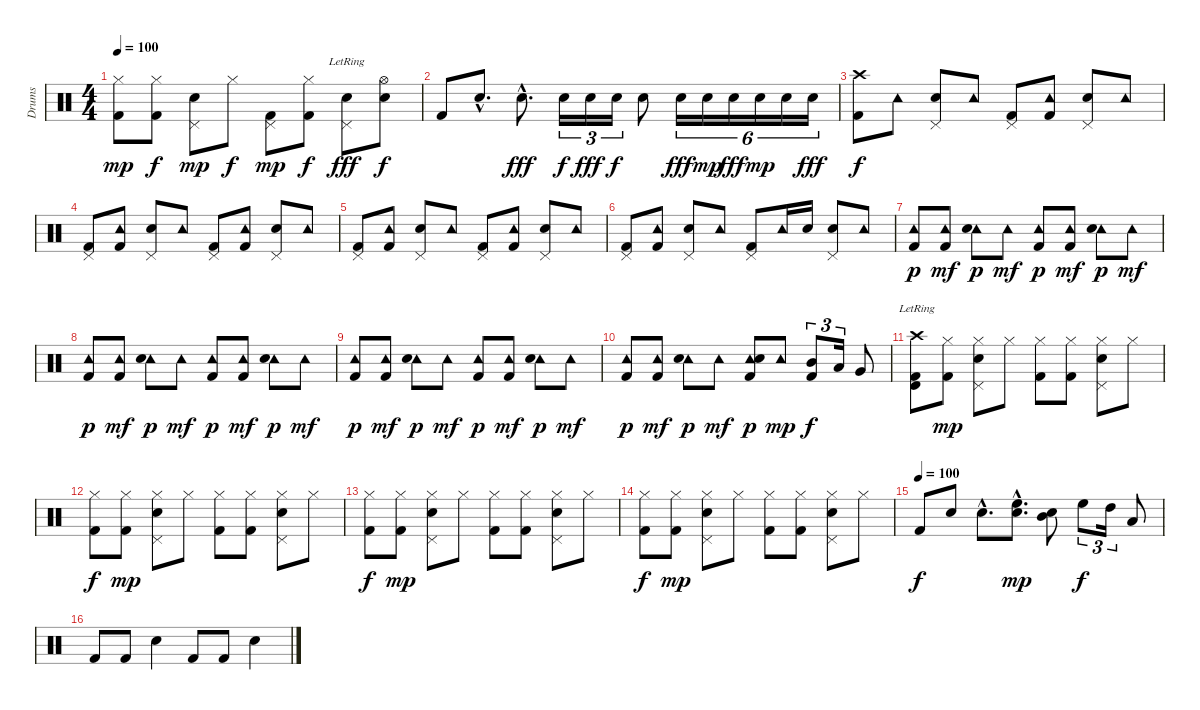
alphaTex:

\track ("Drums" "Drums") {instrument percussion}
\staff {score}
\articulation defaults
\ts (4 4)
\tempo 100
\clef neutral
\ks c
("Hi-Hat (closed)" "Kick (hit) 2").8{dy mp volume 10} ("Hi-Hat (closed)" "Kick (hit) 2").8{dy f} ("Pedal Hi-Hat (hit)" "Snare (hit) 2").8{dy mp} "Hi-Hat (closed)".8{dy f} ("Pedal Hi-Hat (hit)" "Kick (hit) 2").8{dy mp} ("Hi-Hat (closed)" "Kick (hit) 2").8{dy f} ("Pedal Hi-Hat (hit)" "Snare (hit) 2"{lr}).8{dy fff} ("Hi-Hat (open)" "Snare (hit) 2").8{dy f} |
"Kick (hit) 2".8 "Electric Snare (hit)"{hac}.8{d} "Electric Snare (hit)"{hac}.8{d dy fff} "Electric Snare (hit)".16{tu (3 2) dy f} "Electric Snare (hit)".16{tu (3 2) dy fff} "Electric Snare (hit)".16{tu (3 2) dy f} "Electric Snare (hit)".8 "Electric Snare (hit)".16{tu (6 4) dy fff} "Electric Snare (hit)".16{tu (6 4) dy mp} "Electric Snare (hit)".16{tu (6 4) dy fff} "Electric Snare (hit)".16{tu (6 4) dy mp} "Electric Snare (hit)".16{tu (6 4)} "Electric Snare (hit)".16{tu (6 4) dy fff} |
("Crash high (hit)" "Kick (hit) 2").8{dy f} "Tambourine (hit)".8 ("Pedal Hi-Hat (hit)" "Snare (hit) 2").8 "Tambourine (hit)".8 ("Pedal Hi-Hat (hit)" "Kick (hit) 2").8 ("Tambourine (hit)" "Kick (hit) 2").8 ("Pedal Hi-Hat (hit)" "Snare (hit) 2").8 "Tambourine (hit)".8 |
("Pedal Hi-Hat (hit)" "Kick (hit) 2").8 ("Tambourine (hit)" "Kick (hit) 2").8 ("Pedal Hi-Hat (hit)" "Snare (hit) 2").8 "Tambourine (hit)".8 ("Pedal Hi-Hat (hit)" "Kick (hit) 2").8 ("Tambourine (hit)" "Kick (hit) 2").8 ("Pedal Hi-Hat (hit)" "Snare (hit) 2").8 "Tambourine (hit)".8 |
("Pedal Hi-Hat (hit)" "Kick (hit) 2").8 ("Tambourine (hit)" "Kick (hit) 2").8 ("Pedal Hi-Hat (hit)" "Snare (hit) 2").8 "Tambourine (hit)".8 ("Pedal Hi-Hat (hit)" "Kick (hit) 2").8 ("Tambourine (hit)" "Kick (hit) 2").8 ("Pedal Hi-Hat (hit)" "Snare (hit) 2").8 "Tambourine (hit)".8 |
("Pedal Hi-Hat (hit)" "Kick (hit) 2").8 ("Tambourine (hit)" "Kick (hit) 2").8 ("Pedal Hi-Hat (hit)" "Snare (hit) 2").8 "Tambourine (hit)".8 ("Pedal Hi-Hat (hit)" "Kick (hit) 2").8 "Tambourine (hit)".16 "Snare (hit) 2".16 ("Pedal Hi-Hat (hit)" "Snare (hit) 2").8 "Tambourine (hit)".8 |
("Tambourine (hit)" "Kick (hit) 2").8{dy p} ("Tambourine (hit)" "Kick (hit) 2").8{dy mf} ("Tambourine (hit)" "Snare (hit) 2").8{dy p} "Tambourine (hit)".8{dy mf} ("Tambourine (hit)" "Kick (hit) 2").8{dy p} ("Tambourine (hit)" "Kick (hit) 2").8{dy mf} ("Tambourine (hit)" "Snare (hit) 2").8{dy p} "Tambourine (hit)".8{dy mf} |
("Tambourine (hit)" "Kick (hit) 2").8{dy p} ("Tambourine (hit)" "Kick (hit) 2").8{dy mf} ("Tambourine (hit)" "Snare (hit) 2").8{dy p} "Tambourine (hit)".8{dy mf} ("Tambourine (hit)" "Kick (hit) 2").8{dy p} ("Tambourine (hit)" "Kick (hit) 2").8{dy mf} ("Tambourine (hit)" "Snare (hit) 2").8{dy p} "Tambourine (hit)".8{dy mf} |
("Tambourine (hit)" "Kick (hit) 2").8{dy p} ("Tambourine (hit)" "Kick (hit) 2").8{dy mf} ("Tambourine (hit)" "Snare (hit) 2").8{dy p} "Tambourine (hit)".8{dy mf} ("Tambourine (hit)" "Kick (hit) 2").8{dy p} ("Tambourine (hit)" "Kick (hit) 2").8{dy mf} ("Tambourine (hit)" "Snare (hit) 2").8{dy p} "Tambourine (hit)".8{dy mf} |
("Tambourine (hit)" "Kick (hit) 2").8{dy p} ("Tambourine (hit)" "Kick (hit) 2").8{dy mf} ("Tambourine (hit)" "Snare (hit) 2").8{dy p} "Tambourine (hit)".8{dy mf} ("Tambourine (hit)" "Snare (hit) 2" "Kick (hit) 2").8{dy p} "Tambourine (hit)".8{dy mp} ("Mid Tom (hit)" "Kick (hit) 2").8{tu (3 2) dy f} "Low Tom (hit)".16{tu (3 2) bd 120} "Very Low Tom (hit)".8 |
("Crash high (hit)" "Timbale high (hit)"{lr} "Kick (hit) 2").8 ("Hi-Hat (closed)" "Kick (hit) 2").8{dy mp} ("Hi-Hat (closed)" "Pedal Hi-Hat (hit)" "Electric Snare (hit)").8 "Hi-Hat (closed)".8 ("Hi-Hat (closed)" "Kick (hit) 2").8 ("Hi-Hat (closed)" "Kick (hit) 2").8 ("Hi-Hat (closed)" "Pedal Hi-Hat (hit)" "Electric Snare (hit)").8 "Hi-Hat (closed)".8 |
("Hi-Hat (closed)" "Kick (hit) 2").8{dy f} ("Hi-Hat (closed)" "Kick (hit) 2").8{dy mp} ("Hi-Hat (closed)" "Pedal Hi-Hat (hit)" "Electric Snare (hit)").8 "Hi-Hat (closed)".8 ("Hi-Hat (closed)" "Kick (hit) 2").8 ("Hi-Hat (closed)" "Kick (hit) 2").8 ("Hi-Hat (closed)" "Pedal Hi-Hat (hit)" "Electric Snare (hit)").8 "Hi-Hat (closed)".8 |
("Hi-Hat (closed)" "Kick (hit) 2").8{dy f} ("Hi-Hat (closed)" "Kick (hit) 2").8{dy mp} ("Hi-Hat (closed)" "Pedal Hi-Hat (hit)" "Electric Snare (hit)").8 "Hi-Hat (closed)".8 ("Hi-Hat (closed)" "Kick (hit) 2").8 ("Hi-Hat (closed)" "Kick (hit) 2").8 ("Hi-Hat (closed)" "Pedal Hi-Hat (hit)" "Electric Snare (hit)").8 "Hi-Hat (closed)".8 |
("Hi-Hat (closed)" "Kick (hit) 2").8{dy f} ("Hi-Hat (closed)" "Kick (hit) 2").8{dy mp} ("Hi-Hat (closed)" "Pedal Hi-Hat (hit)" "Electric Snare (hit)").8 "Hi-Hat (closed)".8 ("Hi-Hat (closed)" "Kick (hit) 2").8 ("Hi-Hat (closed)" "Kick (hit) 2").8 ("Hi-Hat (closed)" "Pedal Hi-Hat (hit)" "Electric Snare (hit)").8 "Hi-Hat (closed)".8 |
\tempo (100)
"Kick (hit) 2".8{dy f} "Snare (hit) 2".8 "Snare (hit) 2"{hac}.8{d} ("High Floor Tom (hit)"{hac} "Snare (hit) 2"{hac}).8{d bu 120 dy mp} ("Mid Tom (hit)" "Snare (hit) 2").8 "High Floor Tom (hit)".8{tu (3 2) dy f} "High Tom (hit)".16{tu (3 2)} "Low Tom (hit)".8 |
"Kick (hit) 2".8 "Kick (hit) 2".8 "Snare (hit) 2".4 "Kick (hit) 2".8 "Kick (hit) 2".8 "Snare (hit) 2".4
